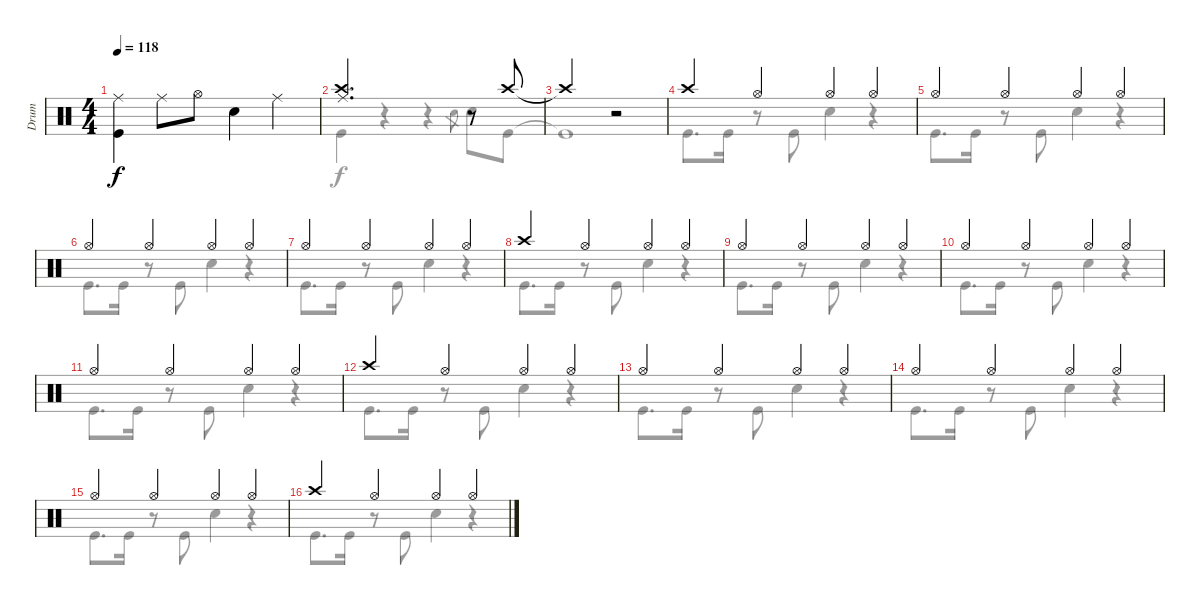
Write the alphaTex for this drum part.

\track ("Drum" "Drum") {instrument percussion}
\staff {score}
\articulation defaults
\voice
\ts (4 4)
\tempo 118
\clef neutral
\ks c
("Kick (hit)" "Ride (middle)").4{dy f} "Ride (middle)".8 "Hi-Hat (open)".8 "Snare (hit) 2".4 "Ride (middle)".4 |
("Crash high (hit)" "Ride (middle)").2{d} r.8 "Crash high (hit)".8 |
"Crash high (hit)"{t}.2 r.2 |
"Crash high (hit)".4 "Hi-Hat (open)".4 "Hi-Hat (open)".4 "Hi-Hat (open)".4 |
"Hi-Hat (open)".4 "Hi-Hat (open)".4 "Hi-Hat (open)".4 "Hi-Hat (open)".4 |
"Hi-Hat (open)".4 "Hi-Hat (open)".4 "Hi-Hat (open)".4 "Hi-Hat (open)".4 |
"Hi-Hat (open)".4 "Hi-Hat (open)".4 "Hi-Hat (open)".4 "Hi-Hat (open)".4 |
"Crash high (hit)".4 "Hi-Hat (open)".4 "Hi-Hat (open)".4 "Hi-Hat (open)".4 |
"Hi-Hat (open)".4 "Hi-Hat (open)".4 "Hi-Hat (open)".4 "Hi-Hat (open)".4 |
"Hi-Hat (open)".4 "Hi-Hat (open)".4 "Hi-Hat (open)".4 "Hi-Hat (open)".4 |
"Hi-Hat (open)".4 "Hi-Hat (open)".4 "Hi-Hat (open)".4 "Hi-Hat (open)".4 |
"Crash high (hit)".4 "Hi-Hat (open)".4 "Hi-Hat (open)".4 "Hi-Hat (open)".4 |
"Hi-Hat (open)".4 "Hi-Hat (open)".4 "Hi-Hat (open)".4 "Hi-Hat (open)".4 |
"Hi-Hat (open)".4 "Hi-Hat (open)".4 "Hi-Hat (open)".4 "Hi-Hat (open)".4 |
"Hi-Hat (open)".4 "Hi-Hat (open)".4 "Hi-Hat (open)".4 "Hi-Hat (open)".4 |
"Crash high (hit)".4 "Hi-Hat (open)".4 "Hi-Hat (open)".4 "Hi-Hat (open)".4
\voice
\clef neutral
\ottava regular
\simile none
\ks c
|
"Kick (hit)".4 r.4 r.4 "Snare (hit) 2".8{gr} "Snare (hit) 2".8 "Kick (hit)".8 |
"Kick (hit)"{t}.1 |
"Kick (hit)".8{d} "Kick (hit)".16 r.8 "Kick (hit)".8 "Snare (hit) 2".4 r.4 |
"Kick (hit)".8{d} "Kick (hit)".16 r.8 "Kick (hit)".8 "Snare (hit) 2".4 r.4 |
"Kick (hit)".8{d} "Kick (hit)".16 r.8 "Kick (hit)".8 "Snare (hit) 2".4 r.4 |
"Kick (hit)".8{d} "Kick (hit)".16 r.8 "Kick (hit)".8 "Snare (hit) 2".4 r.4 |
"Kick (hit)".8{d} "Kick (hit)".16 r.8 "Kick (hit)".8 "Snare (hit) 2".4 r.4 |
"Kick (hit)".8{d} "Kick (hit)".16 r.8 "Kick (hit)".8 "Snare (hit) 2".4 r.4 |
"Kick (hit)".8{d} "Kick (hit)".16 r.8 "Kick (hit)".8 "Snare (hit) 2".4 r.4 |
"Kick (hit)".8{d} "Kick (hit)".16 r.8 "Kick (hit)".8 "Snare (hit) 2".4 r.4 |
"Kick (hit)".8{d} "Kick (hit)".16 r.8 "Kick (hit)".8 "Snare (hit) 2".4 r.4 |
"Kick (hit)".8{d} "Kick (hit)".16 r.8 "Kick (hit)".8 "Snare (hit) 2".4 r.4 |
"Kick (hit)".8{d} "Kick (hit)".16 r.8 "Kick (hit)".8 "Snare (hit) 2".4 r.4 |
"Kick (hit)".8{d} "Kick (hit)".16 r.8 "Kick (hit)".8 "Snare (hit) 2".4 r.4 |
"Kick (hit)".8{d} "Kick (hit)".16 r.8 "Kick (hit)".8 "Snare (hit) 2".4 r.4
